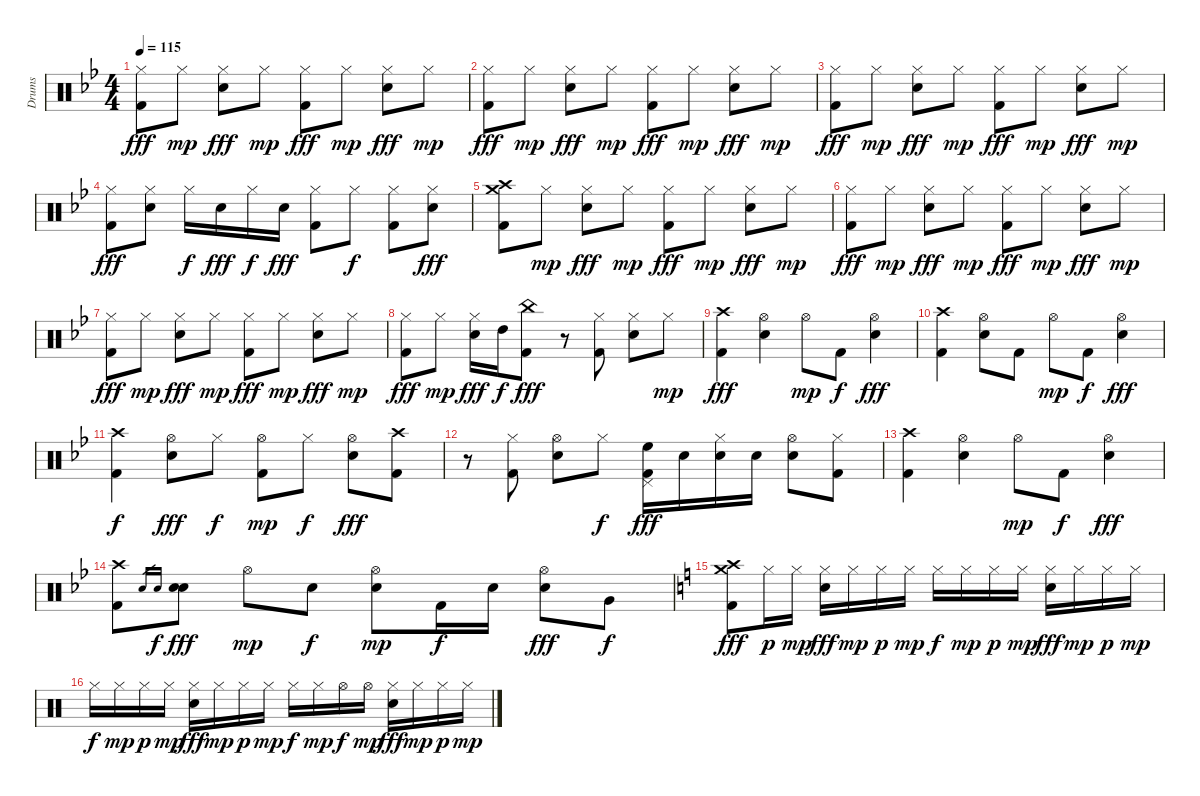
\track ("Drums" "Drums") {instrument percussion}
\staff {score}
\articulation defaults
\ts (4 4)
\tempo 115
\clef neutral
\ks bb
("Hi-Hat (closed)" "Kick (hit) 2").8{dy fff} "Hi-Hat (closed)".8{dy mp} ("Hi-Hat (closed)" "Electric Snare (hit)").8{dy fff} "Hi-Hat (closed)".8{dy mp} ("Hi-Hat (closed)" "Kick (hit) 2").8{dy fff} "Hi-Hat (closed)".8{dy mp} ("Hi-Hat (closed)" "Electric Snare (hit)").8{dy fff} "Hi-Hat (closed)".8{dy mp} |
("Hi-Hat (closed)" "Kick (hit) 2").8{dy fff} "Hi-Hat (closed)".8{dy mp} ("Hi-Hat (closed)" "Electric Snare (hit)").8{dy fff} "Hi-Hat (closed)".8{dy mp} ("Hi-Hat (closed)" "Kick (hit) 2").8{dy fff} "Hi-Hat (closed)".8{dy mp} ("Hi-Hat (closed)" "Electric Snare (hit)").8{dy fff} "Hi-Hat (closed)".8{dy mp} |
("Hi-Hat (closed)" "Kick (hit) 2").8{dy fff} "Hi-Hat (closed)".8{dy mp} ("Hi-Hat (closed)" "Electric Snare (hit)").8{dy fff} "Hi-Hat (closed)".8{dy mp} ("Hi-Hat (closed)" "Kick (hit) 2").8{dy fff} "Hi-Hat (closed)".8{dy mp} ("Hi-Hat (closed)" "Electric Snare (hit)").8{dy fff} "Hi-Hat (closed)".8{dy mp} |
("Hi-Hat (closed)" "Kick (hit) 2").8{dy fff} ("Hi-Hat (closed)" "Electric Snare (hit)").8 "Hi-Hat (closed)".16{dy f} "Electric Snare (hit)".16{dy fff} "Hi-Hat (closed)".16{dy f} "Electric Snare (hit)".16{dy fff} ("Hi-Hat (closed)" "Kick (hit) 2").8 "Hi-Hat (closed)".8{dy f} ("Hi-Hat (closed)" "Kick (hit) 2").8 ("Hi-Hat (closed)" "Electric Snare (hit)").8{dy fff} |
("Crash high (hit)" "Crash medium (hit)" "Kick (hit) 2").8 "Hi-Hat (closed)".8{dy mp} ("Hi-Hat (closed)" "Electric Snare (hit)").8{dy fff} "Hi-Hat (closed)".8{dy mp} ("Hi-Hat (closed)" "Kick (hit) 2").8{dy fff} "Hi-Hat (closed)".8{dy mp} ("Hi-Hat (closed)" "Electric Snare (hit)").8{dy fff} "Hi-Hat (closed)".8{dy mp} |
("Hi-Hat (closed)" "Kick (hit) 2").8{dy fff} "Hi-Hat (closed)".8{dy mp} ("Hi-Hat (closed)" "Electric Snare (hit)").8{dy fff} "Hi-Hat (closed)".8{dy mp} ("Hi-Hat (closed)" "Kick (hit) 2").8{dy fff} "Hi-Hat (closed)".8{dy mp} ("Hi-Hat (closed)" "Electric Snare (hit)").8{dy fff} "Hi-Hat (closed)".8{dy mp} |
("Hi-Hat (closed)" "Kick (hit) 2").8{dy fff} "Hi-Hat (closed)".8{dy mp} ("Hi-Hat (closed)" "Electric Snare (hit)").8{dy fff} "Hi-Hat (closed)".8{dy mp} ("Hi-Hat (closed)" "Kick (hit) 2").8{dy fff} "Hi-Hat (closed)".8{dy mp} ("Hi-Hat (closed)" "Electric Snare (hit)").8{dy fff} "Hi-Hat (closed)".8{dy mp} |
("Hi-Hat (closed)" "Kick (hit) 2").8{dy fff} "Hi-Hat (closed)".8{dy mp} ("Hi-Hat (closed)" "Electric Snare (hit)").16{dy fff} "High Tom (hit)".16{dy f} ("China (hit)" "Kick (hit) 2").8{dy fff} r.8 ("Hi-Hat (closed)" "Kick (hit) 2").8 ("Hi-Hat (closed)" "Electric Snare (hit)").8 "Hi-Hat (closed)".8{dy mp} |
("Crash high (hit)" "Kick (hit) 2").4{dy fff} ("Hi-Hat (open)" "Electric Snare (hit)").4 "Hi-Hat (open)".8{dy mp} "Kick (hit) 2".8{dy f} ("Hi-Hat (open)" "Electric Snare (hit)").4{dy fff} |
("Crash high (hit)" "Kick (hit) 2").4 ("Hi-Hat (open)" "Electric Snare (hit)").8 "Kick (hit) 2".8 "Hi-Hat (open)".8{dy mp} "Kick (hit) 2".8{dy f} ("Hi-Hat (open)" "Electric Snare (hit)").4{dy fff} |
("Crash high (hit)" "Kick (hit) 2").4{dy f} ("Hi-Hat (open)" "Electric Snare (hit)").8{dy fff} "Hi-Hat (closed)".8{dy f} ("Hi-Hat (open)" "Kick (hit) 2").8{dy mp} "Hi-Hat (closed)".8{dy f} ("Hi-Hat (open)" "Electric Snare (hit)").8{dy fff} ("Crash high (hit)" "Kick (hit) 2").8 |
r.8 ("Hi-Hat (closed)" "Kick (hit) 2").8 ("Hi-Hat (open)" "Electric Snare (hit)").8 "Hi-Hat (closed)".8{dy f} ("Pedal Hi-Hat (hit)" "High Floor Tom (hit)" "Kick (hit) 2").16{dy fff} "Electric Snare (hit)".16 ("Hi-Hat (closed)" "Electric Snare (hit)").16 "Electric Snare (hit)".16 ("Hi-Hat (open)" "Electric Snare (hit)").8 ("Hi-Hat (closed)" "Kick (hit) 2").8 |
("Crash high (hit)" "Kick (hit) 2").4 ("Hi-Hat (open)" "Electric Snare (hit)").4 "Hi-Hat (open)".8{dy mp} "Kick (hit) 2".8{dy f} ("Hi-Hat (open)" "Electric Snare (hit)").4{dy fff} |
("Crash high (hit)" "Kick (hit) 2").8 "Electric Snare (hit)".16{gr} "Electric Snare (hit)".16{gr dy f} ("Electric Snare (hit)" "Electric Snare (hit)").8{dy fff} "Hi-Hat (open)".8{dy mp} "Electric Snare (hit)".8{dy f} ("Hi-Hat (open)" "Electric Snare (hit)").8{dy mp} "Kick (hit) 2".16{dy f} "Electric Snare (hit)".16 ("Hi-Hat (open)" "Electric Snare (hit)").8{dy fff} "Very Low Tom (hit)".8{dy f} |
\ks c
("Crash medium (hit)" "Crash high (hit)" "Kick (hit) 2").8{dy fff} "Hi-Hat (closed)".16{dy p} "Hi-Hat (closed)".16{dy mp} ("Hi-Hat (closed)" "Electric Snare (hit)").16{dy fff} "Hi-Hat (closed)".16{dy mp} "Hi-Hat (closed)".16{dy p} "Hi-Hat (closed)".16{dy mp} "Hi-Hat (closed)".16{dy f} "Hi-Hat (closed)".16{dy mp} "Hi-Hat (closed)".16{dy p} "Hi-Hat (closed)".16{dy mp} ("Hi-Hat (closed)" "Electric Snare (hit)").16{dy fff} "Hi-Hat (closed)".16{dy mp} "Hi-Hat (closed)".16{dy p} "Hi-Hat (closed)".16{dy mp} |
"Hi-Hat (closed)".16{dy f} "Hi-Hat (closed)".16{dy mp} "Hi-Hat (closed)".16{dy p} "Hi-Hat (closed)".16{dy mp} ("Hi-Hat (closed)" "Electric Snare (hit)").16{dy fff} "Hi-Hat (closed)".16{dy mp} "Hi-Hat (closed)".16{dy p} "Hi-Hat (closed)".16{dy mp} "Hi-Hat (closed)".16{dy f} "Hi-Hat (closed)".16{dy mp} "Hi-Hat (open)".16{dy f} "Hi-Hat (open)".16{dy mp} ("Hi-Hat (closed)" "Electric Snare (hit)").16{dy fff} "Hi-Hat (closed)".16{dy mp} "Hi-Hat (closed)".16{dy p} "Hi-Hat (closed)".16{dy mp}
